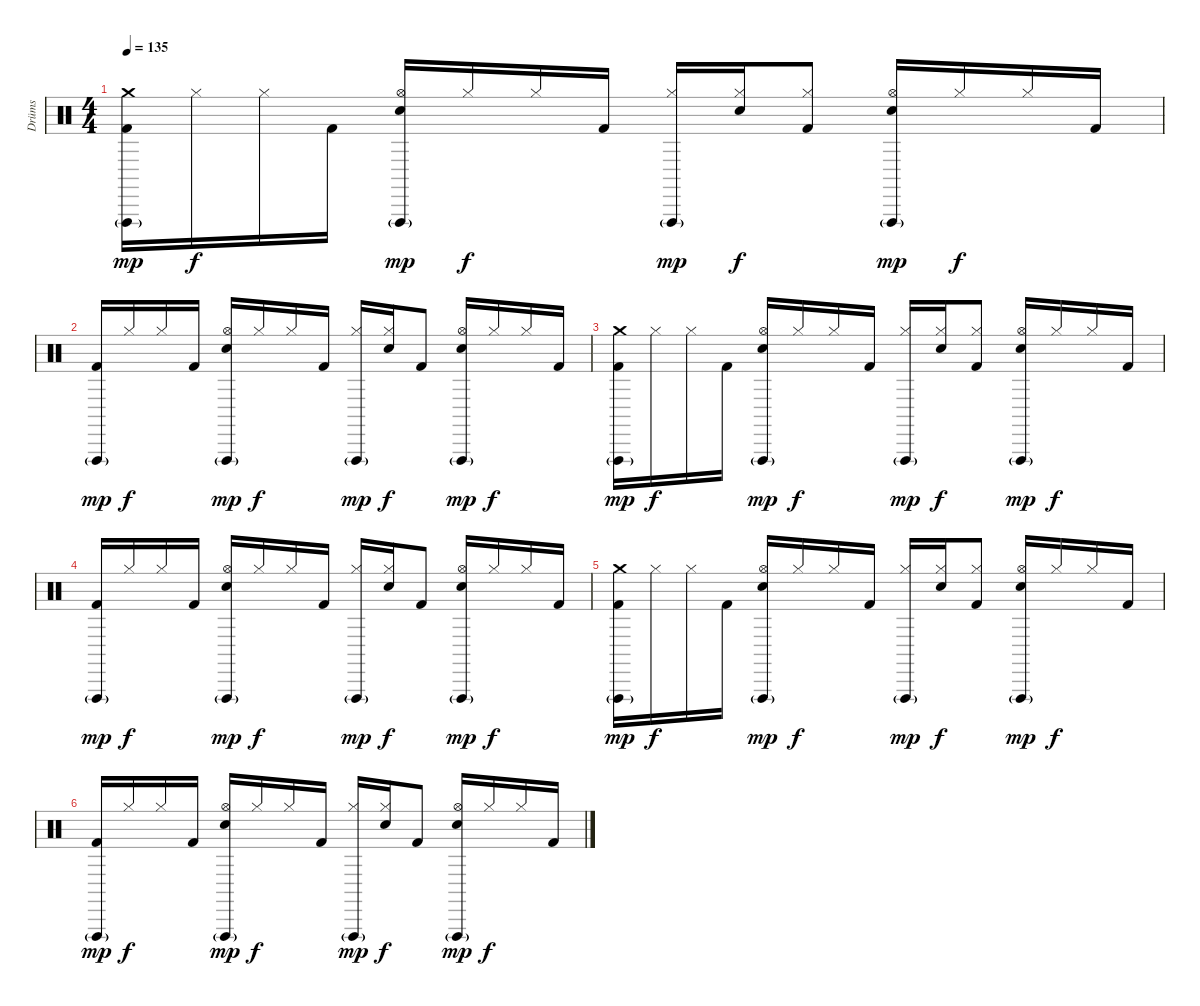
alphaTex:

\track ("Drüms" "Drüms") {instrument percussion}
\staff {score}
\articulation defaults
\ts (4 4)
\tempo 135
\clef neutral
\ks c
("Crash medium (hit)" "Vibraslap (hit)"{g} "Kick (hit) 2").16{dy mp} "Hi-Hat (closed)".16{dy f} "Hi-Hat (closed)".16 "Kick (hit) 2".16 ("Vibraslap (hit)"{g} "Hi-Hat (open)" "Electric Snare (hit)").16{dy mp} "Hi-Hat (closed)".16{dy f} "Hi-Hat (closed)".16 "Kick (hit) 2".16 ("Vibraslap (hit)"{g} "Hi-Hat (closed)").16{dy mp} ("Hi-Hat (closed)" "Electric Snare (hit)").16{dy f} ("Hi-Hat (closed)" "Kick (hit) 2").8 ("Vibraslap (hit)"{g} "Hi-Hat (open)" "Electric Snare (hit)").16{dy mp} "Hi-Hat (closed)".16{dy f} "Hi-Hat (closed)".16 "Kick (hit) 2".16 |
("Vibraslap (hit)"{g} "Kick (hit) 2").16{dy mp} "Hi-Hat (closed)".16{dy f} "Hi-Hat (closed)".16 "Kick (hit) 2".16 ("Vibraslap (hit)"{g} "Hi-Hat (open)" "Electric Snare (hit)").16{dy mp} "Hi-Hat (closed)".16{dy f} "Hi-Hat (closed)".16 "Kick (hit) 2".16 ("Vibraslap (hit)"{g} "Hi-Hat (closed)").16{dy mp} ("Hi-Hat (closed)" "Electric Snare (hit)").16{dy f} "Kick (hit) 2".8 ("Vibraslap (hit)"{g} "Hi-Hat (open)" "Electric Snare (hit)").16{dy mp} "Hi-Hat (closed)".16{dy f} "Hi-Hat (closed)".16 "Kick (hit) 2".16 |
("Crash medium (hit)" "Vibraslap (hit)"{g} "Kick (hit) 2").16{dy mp} "Hi-Hat (closed)".16{dy f} "Hi-Hat (closed)".16 "Kick (hit) 2".16 ("Vibraslap (hit)"{g} "Hi-Hat (open)" "Electric Snare (hit)").16{dy mp} "Hi-Hat (closed)".16{dy f} "Hi-Hat (closed)".16 "Kick (hit) 2".16 ("Vibraslap (hit)"{g} "Hi-Hat (closed)").16{dy mp} ("Hi-Hat (closed)" "Electric Snare (hit)").16{dy f} ("Hi-Hat (closed)" "Kick (hit) 2").8 ("Vibraslap (hit)"{g} "Hi-Hat (open)" "Electric Snare (hit)").16{dy mp} "Hi-Hat (closed)".16{dy f} "Hi-Hat (closed)".16 "Kick (hit) 2".16 |
("Vibraslap (hit)"{g} "Kick (hit) 2").16{dy mp} "Hi-Hat (closed)".16{dy f} "Hi-Hat (closed)".16 "Kick (hit) 2".16 ("Vibraslap (hit)"{g} "Hi-Hat (open)" "Electric Snare (hit)").16{dy mp} "Hi-Hat (closed)".16{dy f} "Hi-Hat (closed)".16 "Kick (hit) 2".16 ("Vibraslap (hit)"{g} "Hi-Hat (closed)").16{dy mp} ("Hi-Hat (closed)" "Electric Snare (hit)").16{dy f} "Kick (hit) 2".8 ("Vibraslap (hit)"{g} "Hi-Hat (open)" "Electric Snare (hit)").16{dy mp} "Hi-Hat (closed)".16{dy f} "Hi-Hat (closed)".16 "Kick (hit) 2".16 |
("Crash medium (hit)" "Vibraslap (hit)"{g} "Kick (hit) 2").16{dy mp} "Hi-Hat (closed)".16{dy f} "Hi-Hat (closed)".16 "Kick (hit) 2".16 ("Vibraslap (hit)"{g} "Hi-Hat (open)" "Electric Snare (hit)").16{dy mp} "Hi-Hat (closed)".16{dy f} "Hi-Hat (closed)".16 "Kick (hit) 2".16 ("Vibraslap (hit)"{g} "Hi-Hat (closed)").16{dy mp} ("Hi-Hat (closed)" "Electric Snare (hit)").16{dy f} ("Hi-Hat (closed)" "Kick (hit) 2").8 ("Vibraslap (hit)"{g} "Hi-Hat (open)" "Electric Snare (hit)").16{dy mp} "Hi-Hat (closed)".16{dy f} "Hi-Hat (closed)".16 "Kick (hit) 2".16 |
("Vibraslap (hit)"{g} "Kick (hit) 2").16{dy mp} "Hi-Hat (closed)".16{dy f} "Hi-Hat (closed)".16 "Kick (hit) 2".16 ("Vibraslap (hit)"{g} "Hi-Hat (open)" "Electric Snare (hit)").16{dy mp} "Hi-Hat (closed)".16{dy f} "Hi-Hat (closed)".16 "Kick (hit) 2".16 ("Vibraslap (hit)"{g} "Hi-Hat (closed)").16{dy mp} ("Hi-Hat (closed)" "Electric Snare (hit)").16{dy f} "Kick (hit) 2".8 ("Vibraslap (hit)"{g} "Hi-Hat (open)" "Electric Snare (hit)").16{dy mp} "Hi-Hat (closed)".16{dy f} "Hi-Hat (closed)".16 "Kick (hit) 2".16
